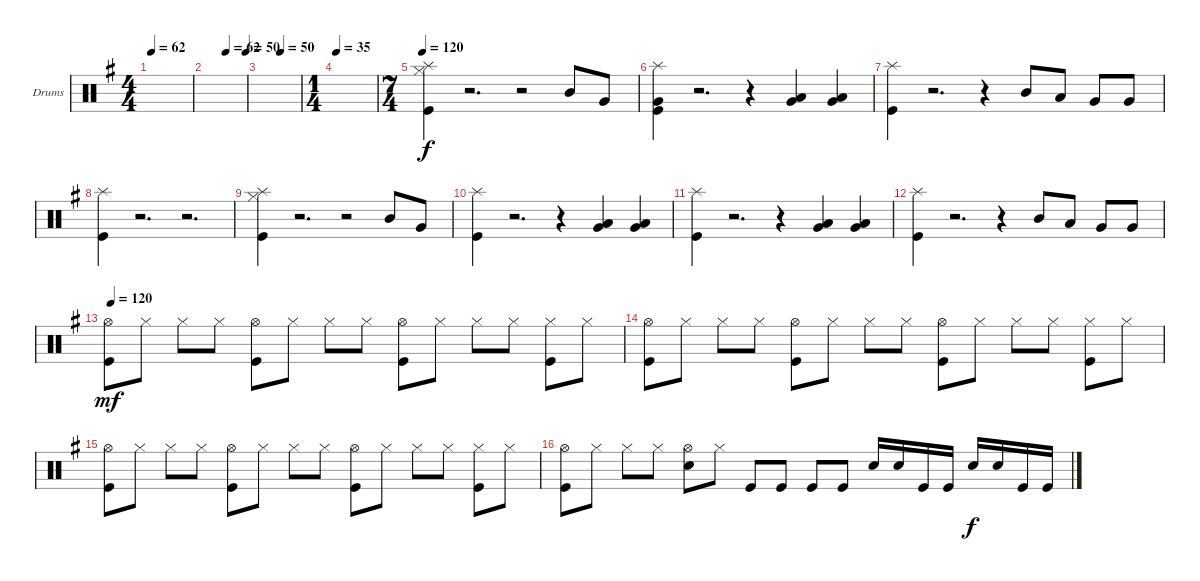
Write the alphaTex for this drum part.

\defaultSystemsLayout 4
\bracketExtendMode groupsimilarinstruments
\firstSystemTrackNameOrientation horizontal
\otherSystemsTrackNameOrientation horizontal
\track ("Drumkit" "Drums") {instrument percussion}
\staff {score}
\articulation defaults
\ts (4 4)
\tempo 62
\clef neutral
\ks eminor
|
\tempo (62 0.5)
\tempo (50 1)
|
\tempo (50 0.50625)
|
\ts (1 4)
\tempo 35
|
\ts (7 4)
\tempo 120
("Kick (hit)" "Hi-Hat (closed)" "Splash (hit)").4 r.2{d} r.2 "Mid Tom (hit)".8 "Very Low Tom (hit)".8 |
("Kick (hit)" "Very Low Tom (hit)" "Splash (hit)").4{beam invert} r.2{d} r.4 ("Very Low Tom (hit)" "Low Tom (hit)").4 ("Very Low Tom (hit)" "Low Tom (hit)").4 |
("Kick (hit)" "Splash (hit)").4 r.2{d} r.4 "Mid Tom (hit)".8 "Low Tom (hit)".8 "Very Low Tom (hit)".8 "Very Low Tom (hit)".8 |
("Kick (hit)" "Splash (hit)").4 r.2{d} r.2{d} |
("Kick (hit)" "Splash (hit)" "Hi-Hat (closed)").4 r.2{d} r.2 "Mid Tom (hit)".8 "Very Low Tom (hit)".8 |
("Kick (hit)" "Splash (hit)").4 r.2{d} r.4 ("Very Low Tom (hit)" "Low Tom (hit)").4 ("Very Low Tom (hit)" "Low Tom (hit)").4 |
("Kick (hit)" "Splash (hit)").4 r.2{d} r.4 ("Very Low Tom (hit)" "Low Tom (hit)").4 ("Very Low Tom (hit)" "Low Tom (hit)").4 |
("Kick (hit)" "Splash (hit)").4 r.2{d} r.4 "Mid Tom (hit)".8 "Low Tom (hit)".8 "Very Low Tom (hit)".8 "Very Low Tom (hit)".8 |
\tempo (120 0.00625)
("Hi-Hat (open)" "Kick (hit)").8{dy mf} "Hi-Hat (closed)".8 "Hi-Hat (closed)".8 "Hi-Hat (closed)".8 ("Hi-Hat (open)" "Kick (hit)").8 "Hi-Hat (closed)".8 "Hi-Hat (closed)".8 "Hi-Hat (closed)".8 ("Hi-Hat (open)" "Kick (hit)").8 "Hi-Hat (closed)".8 "Hi-Hat (closed)".8 "Hi-Hat (closed)".8 ("Hi-Hat (closed)" "Kick (hit)").8 "Hi-Hat (closed)".8 |
("Hi-Hat (open)" "Kick (hit)").8 "Hi-Hat (closed)".8 "Hi-Hat (closed)".8 "Hi-Hat (closed)".8 ("Hi-Hat (open)" "Kick (hit)").8 "Hi-Hat (closed)".8 "Hi-Hat (closed)".8 "Hi-Hat (closed)".8 ("Hi-Hat (open)" "Kick (hit)").8 "Hi-Hat (closed)".8 "Hi-Hat (closed)".8 "Hi-Hat (closed)".8 ("Hi-Hat (closed)" "Kick (hit)").8 "Hi-Hat (closed)".8 |
("Hi-Hat (open)" "Kick (hit)").8 "Hi-Hat (closed)".8 "Hi-Hat (closed)".8 "Hi-Hat (closed)".8 ("Hi-Hat (open)" "Kick (hit)").8 "Hi-Hat (closed)".8 "Hi-Hat (closed)".8 "Hi-Hat (closed)".8 ("Hi-Hat (open)" "Kick (hit)").8 "Hi-Hat (closed)".8 "Hi-Hat (closed)".8 "Hi-Hat (closed)".8 ("Hi-Hat (closed)" "Kick (hit)").8 "Hi-Hat (closed)".8 |
("Kick (hit)" "Hi-Hat (open)").8 "Hi-Hat (closed)".8 "Hi-Hat (closed)".8 "Hi-Hat (closed)".8 ("Hi-Hat (open)" "Snare (hit) 2").8 "Hi-Hat (closed)".8 "Kick (hit)".8 "Kick (hit)".8 "Kick (hit)".8 "Kick (hit)".8 "Snare (hit) 2".16 "Snare (hit) 2".16 "Kick (hit)".16 "Kick (hit)".16 "Snare (hit) 2".16{dy f} "Snare (hit) 2".16 "Kick (hit)".16 "Kick (hit)".16
